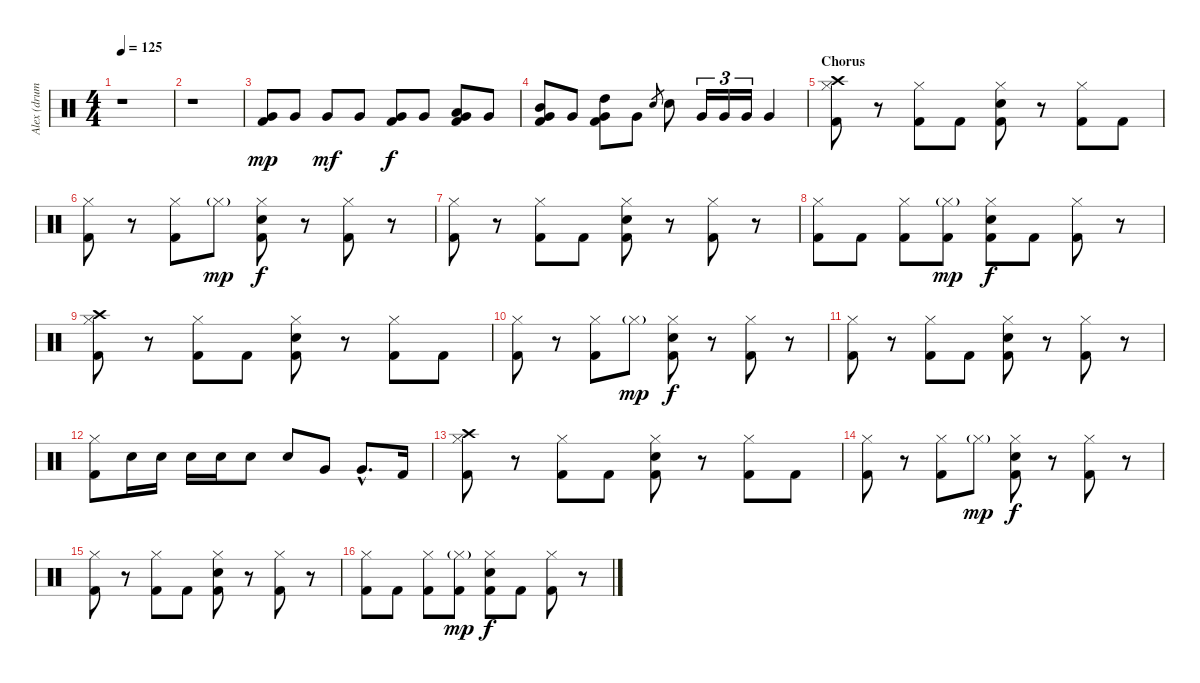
\track ("Alex (drums)" "Alex (drum") {instrument percussion}
\staff {score}
\articulation defaults
\ts (4 4)
\tempo 125
\clef neutral
\ks c
r.1{dy mp} |
r.1 |
("Very Low Tom (hit)" "Kick (hit) 2").8 "Very Low Tom (hit)".8 "Very Low Tom (hit)".8{dy mf} "Very Low Tom (hit)".8 ("Very Low Tom (hit)" "Kick (hit) 2").8{dy f} "Very Low Tom (hit)".8 ("Low Tom (hit)" "Very Low Tom (hit)" "Kick (hit) 2").8 "Very Low Tom (hit)".8 |
("Mid Tom (hit)" "Very Low Tom (hit)" "Kick (hit) 2").8 "Very Low Tom (hit)".8 ("High Tom (hit)" "Very Low Tom (hit)" "Kick (hit) 2").8 "Very Low Tom (hit)".8 "Snare (hit) 2".8{gr} "Snare (hit) 2".8 "Very Low Tom (hit)".16{tu (3 2)} "Very Low Tom (hit)".16{tu (3 2)} "Very Low Tom (hit)".16{tu (3 2)} "Very Low Tom (hit)".4 |
\section ("" "Chorus")
("Hi-Hat (closed)" "Kick (hit) 2" "Crash high (hit)").8 r.8 ("Hi-Hat (closed)" "Kick (hit) 2").8 "Kick (hit) 2".8 ("Hi-Hat (closed)" "Snare (hit) 2" "Kick (hit) 2").8 r.8 ("Hi-Hat (closed)" "Kick (hit) 2").8 "Kick (hit) 2".8 |
("Hi-Hat (closed)" "Kick (hit) 2").8 r.8 ("Hi-Hat (closed)" "Kick (hit) 2").8 "Hi-Hat (closed)"{g}.8{dy mp} ("Hi-Hat (closed)" "Snare (hit) 2" "Kick (hit) 2").8{dy f} r.8 ("Hi-Hat (closed)" "Kick (hit) 2").8 r.8 |
("Hi-Hat (closed)" "Kick (hit) 2").8 r.8 ("Hi-Hat (closed)" "Kick (hit) 2").8 "Kick (hit) 2".8 ("Hi-Hat (closed)" "Snare (hit) 2" "Kick (hit) 2").8 r.8 ("Hi-Hat (closed)" "Kick (hit) 2").8 r.8 |
("Hi-Hat (closed)" "Kick (hit) 2").8 "Kick (hit) 2".8 ("Hi-Hat (closed)" "Kick (hit) 2").8 ("Hi-Hat (closed)"{g} "Kick (hit) 2").8{dy mp} ("Hi-Hat (closed)" "Snare (hit) 2" "Kick (hit) 2").8{dy f} "Kick (hit) 2".8 ("Hi-Hat (closed)" "Kick (hit) 2").8 r.8 |
("Hi-Hat (closed)" "Kick (hit) 2" "Crash high (hit)").8 r.8 ("Hi-Hat (closed)" "Kick (hit) 2").8 "Kick (hit) 2".8 ("Hi-Hat (closed)" "Snare (hit) 2" "Kick (hit) 2").8 r.8 ("Hi-Hat (closed)" "Kick (hit) 2").8 "Kick (hit) 2".8 |
("Hi-Hat (closed)" "Kick (hit) 2").8 r.8 ("Hi-Hat (closed)" "Kick (hit) 2").8 "Hi-Hat (closed)"{g}.8{dy mp} ("Hi-Hat (closed)" "Snare (hit) 2" "Kick (hit) 2").8{dy f} r.8 ("Hi-Hat (closed)" "Kick (hit) 2").8 r.8 |
("Hi-Hat (closed)" "Kick (hit) 2").8 r.8 ("Hi-Hat (closed)" "Kick (hit) 2").8 "Kick (hit) 2".8 ("Hi-Hat (closed)" "Snare (hit) 2" "Kick (hit) 2").8 r.8 ("Hi-Hat (closed)" "Kick (hit) 2").8 r.8 |
("Hi-Hat (closed)" "Kick (hit) 2").8 "Snare (hit) 2".16 "Snare (hit) 2".16 "Snare (hit) 2".16 "Snare (hit) 2".16 "Snare (hit) 2".8 "Snare (hit) 2".8 "Very Low Tom (hit)".8 "Very Low Tom (hit)"{hac}.8{d} "Kick (hit) 2".16 |
("Hi-Hat (closed)" "Kick (hit) 2" "Crash high (hit)").8 r.8 ("Hi-Hat (closed)" "Kick (hit) 2").8 "Kick (hit) 2".8 ("Hi-Hat (closed)" "Snare (hit) 2" "Kick (hit) 2").8 r.8 ("Hi-Hat (closed)" "Kick (hit) 2").8 "Kick (hit) 2".8 |
("Hi-Hat (closed)" "Kick (hit) 2").8 r.8 ("Hi-Hat (closed)" "Kick (hit) 2").8 "Hi-Hat (closed)"{g}.8{dy mp} ("Hi-Hat (closed)" "Snare (hit) 2" "Kick (hit) 2").8{dy f} r.8 ("Hi-Hat (closed)" "Kick (hit) 2").8 r.8 |
("Hi-Hat (closed)" "Kick (hit) 2").8 r.8 ("Hi-Hat (closed)" "Kick (hit) 2").8 "Kick (hit) 2".8 ("Hi-Hat (closed)" "Snare (hit) 2" "Kick (hit) 2").8 r.8 ("Hi-Hat (closed)" "Kick (hit) 2").8 r.8 |
("Hi-Hat (closed)" "Kick (hit) 2").8 "Kick (hit) 2".8 ("Hi-Hat (closed)" "Kick (hit) 2").8 ("Hi-Hat (closed)"{g} "Kick (hit) 2").8{dy mp} ("Hi-Hat (closed)" "Snare (hit) 2" "Kick (hit) 2").8{dy f} "Kick (hit) 2".8 ("Hi-Hat (closed)" "Kick (hit) 2").8 r.8
